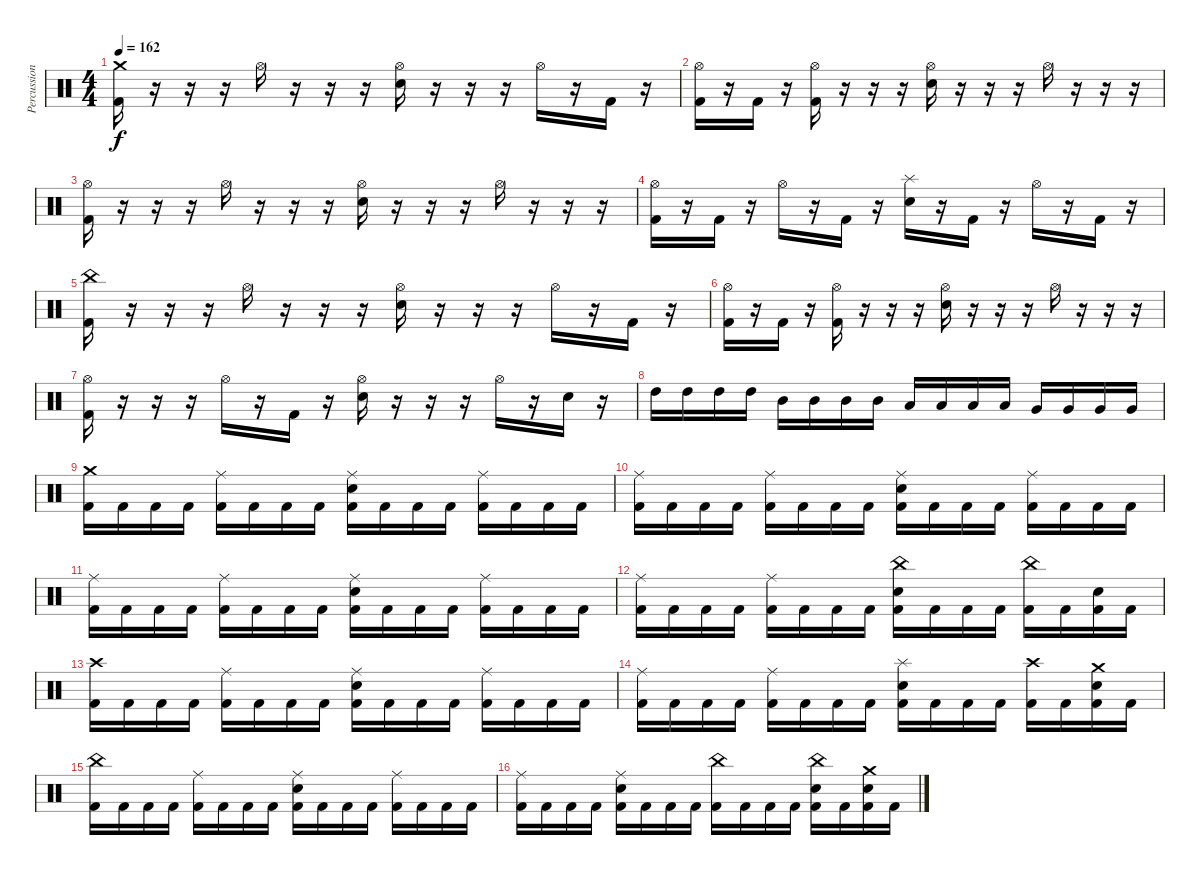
\track ("Percussion" "Percussion") {instrument percussion}
\staff {score}
\articulation defaults
\ts (4 4)
\tempo 162
\clef neutral
\ks c
("Crash medium (hit)" "Kick (hit) 2").16{dy f} r.16 r.16 r.16 "Hi-Hat (open)".16 r.16 r.16 r.16 ("Hi-Hat (open)" "Electric Snare (hit)").16 r.16 r.16 r.16 "Hi-Hat (open)".16 r.16 "Kick (hit) 2".16 r.16 |
("Hi-Hat (open)" "Kick (hit) 2").16 r.16 "Kick (hit) 2".16 r.16 ("Hi-Hat (open)" "Kick (hit) 2").16 r.16 r.16 r.16 ("Hi-Hat (open)" "Electric Snare (hit)").16 r.16 r.16 r.16 "Hi-Hat (open)".16 r.16 r.16 r.16 |
("Hi-Hat (open)" "Kick (hit) 2").16 r.16 r.16 r.16 "Hi-Hat (open)".16 r.16 r.16 r.16 ("Hi-Hat (open)" "Electric Snare (hit)").16 r.16 r.16 r.16 "Hi-Hat (open)".16 r.16 r.16 r.16 |
("Hi-Hat (open)" "Kick (hit) 2").16 r.16 "Kick (hit) 2".16 r.16 "Hi-Hat (open)".16 r.16 "Kick (hit) 2".16 r.16 ("Splash (hit)" "Electric Snare (hit)").16 r.16 "Kick (hit) 2".16 r.16 "Hi-Hat (open)".16 r.16 "Kick (hit) 2".16 r.16 |
("China (hit)" "Kick (hit) 2").16 r.16 r.16 r.16 "Hi-Hat (open)".16 r.16 r.16 r.16 ("Hi-Hat (open)" "Electric Snare (hit)").16 r.16 r.16 r.16 "Hi-Hat (open)".16 r.16 "Kick (hit) 2".16 r.16 |
("Hi-Hat (open)" "Kick (hit) 2").16 r.16 "Kick (hit) 2".16 r.16 ("Hi-Hat (open)" "Kick (hit) 2").16 r.16 r.16 r.16 ("Hi-Hat (open)" "Electric Snare (hit)").16 r.16 r.16 r.16 "Hi-Hat (open)".16 r.16 r.16 r.16 |
("Hi-Hat (open)" "Kick (hit) 2").16 r.16 r.16 r.16 "Hi-Hat (open)".16 r.16 "Kick (hit) 2".16 r.16 ("Hi-Hat (open)" "Electric Snare (hit)").16 r.16 r.16 r.16 "Hi-Hat (open)".16 r.16 "Electric Snare (hit)".16 r.16 |
"High Tom (hit)".16 "High Tom (hit)".16 "High Tom (hit)".16 "High Tom (hit)".16 "Mid Tom (hit)".16 "Mid Tom (hit)".16 "Mid Tom (hit)".16 "Mid Tom (hit)".16 "Low Tom (hit)".16 "Low Tom (hit)".16 "Low Tom (hit)".16 "Low Tom (hit)".16 "Very Low Tom (hit)".16 "Very Low Tom (hit)".16 "Very Low Tom (hit)".16 "Very Low Tom (hit)".16 |
("Crash medium (hit)" "Kick (hit) 2").16 "Kick (hit) 2".16 "Kick (hit) 2".16 "Kick (hit) 2".16 ("Ride (middle)" "Kick (hit) 2").16 "Kick (hit) 2".16 "Kick (hit) 2".16 "Kick (hit) 2".16 ("Ride (middle)" "Electric Snare (hit)" "Kick (hit) 2").16 "Kick (hit) 2".16 "Kick (hit) 2".16 "Kick (hit) 2".16 ("Ride (middle)" "Kick (hit) 2").16 "Kick (hit) 2".16 "Kick (hit) 2".16 "Kick (hit) 2".16 |
("Ride (middle)" "Kick (hit) 2").16 "Kick (hit) 2".16 "Kick (hit) 2".16 "Kick (hit) 2".16 ("Ride (middle)" "Kick (hit) 2").16 "Kick (hit) 2".16 "Kick (hit) 2".16 "Kick (hit) 2".16 ("Ride (middle)" "Electric Snare (hit)" "Kick (hit) 2").16 "Kick (hit) 2".16 "Kick (hit) 2".16 "Kick (hit) 2".16 ("Ride (middle)" "Kick (hit) 2").16 "Kick (hit) 2".16 "Kick (hit) 2".16 "Kick (hit) 2".16 |
("Ride (middle)" "Kick (hit) 2").16 "Kick (hit) 2".16 "Kick (hit) 2".16 "Kick (hit) 2".16 ("Ride (middle)" "Kick (hit) 2").16 "Kick (hit) 2".16 "Kick (hit) 2".16 "Kick (hit) 2".16 ("Ride (middle)" "Electric Snare (hit)" "Kick (hit) 2").16 "Kick (hit) 2".16 "Kick (hit) 2".16 "Kick (hit) 2".16 ("Ride (middle)" "Kick (hit) 2").16 "Kick (hit) 2".16 "Kick (hit) 2".16 "Kick (hit) 2".16 |
("Ride (middle)" "Kick (hit) 2").16 "Kick (hit) 2".16 "Kick (hit) 2".16 "Kick (hit) 2".16 ("Ride (middle)" "Kick (hit) 2").16 "Kick (hit) 2".16 "Kick (hit) 2".16 "Kick (hit) 2".16 ("China (hit)" "Electric Snare (hit)" "Kick (hit) 2").16 "Kick (hit) 2".16 "Kick (hit) 2".16 "Kick (hit) 2".16 ("China (hit)" "Kick (hit) 2").16 "Kick (hit) 2".16 ("Electric Snare (hit)" "Kick (hit) 2").16 "Kick (hit) 2".16 |
("Crash high (hit)" "Kick (hit) 2").16 "Kick (hit) 2".16 "Kick (hit) 2".16 "Kick (hit) 2".16 ("Ride (middle)" "Kick (hit) 2").16 "Kick (hit) 2".16 "Kick (hit) 2".16 "Kick (hit) 2".16 ("Ride (middle)" "Electric Snare (hit)" "Kick (hit) 2").16 "Kick (hit) 2".16 "Kick (hit) 2".16 "Kick (hit) 2".16 ("Ride (middle)" "Kick (hit) 2").16 "Kick (hit) 2".16 "Kick (hit) 2".16 "Kick (hit) 2".16 |
("Ride (middle)" "Kick (hit) 2").16 "Kick (hit) 2".16 "Kick (hit) 2".16 "Kick (hit) 2".16 ("Ride (middle)" "Kick (hit) 2").16 "Kick (hit) 2".16 "Kick (hit) 2".16 "Kick (hit) 2".16 ("Splash (hit)" "Electric Snare (hit)" "Kick (hit) 2").16 "Kick (hit) 2".16 "Kick (hit) 2".16 "Kick (hit) 2".16 ("Crash high (hit)" "Kick (hit) 2").16 "Kick (hit) 2".16 ("Crash medium (hit)" "Electric Snare (hit)" "Kick (hit) 2").16 "Kick (hit) 2".16 |
("China (hit)" "Kick (hit) 2").16 "Kick (hit) 2".16 "Kick (hit) 2".16 "Kick (hit) 2".16 ("Ride (middle)" "Kick (hit) 2").16 "Kick (hit) 2".16 "Kick (hit) 2".16 "Kick (hit) 2".16 ("Ride (middle)" "Electric Snare (hit)" "Kick (hit) 2").16 "Kick (hit) 2".16 "Kick (hit) 2".16 "Kick (hit) 2".16 ("Ride (middle)" "Kick (hit) 2").16 "Kick (hit) 2".16 "Kick (hit) 2".16 "Kick (hit) 2".16 |
("Ride (middle)" "Kick (hit) 2").16 "Kick (hit) 2".16 "Kick (hit) 2".16 "Kick (hit) 2".16 ("Ride (middle)" "Electric Snare (hit)" "Kick (hit) 2").16 "Kick (hit) 2".16 "Kick (hit) 2".16 "Kick (hit) 2".16 ("China (hit)" "Kick (hit) 2").16 "Kick (hit) 2".16 "Kick (hit) 2".16 "Kick (hit) 2".16 ("China (hit)" "Electric Snare (hit)" "Kick (hit) 2").16 "Kick (hit) 2".16 ("Crash medium (hit)" "Electric Snare (hit)" "Kick (hit) 2").16 "Kick (hit) 2".16
